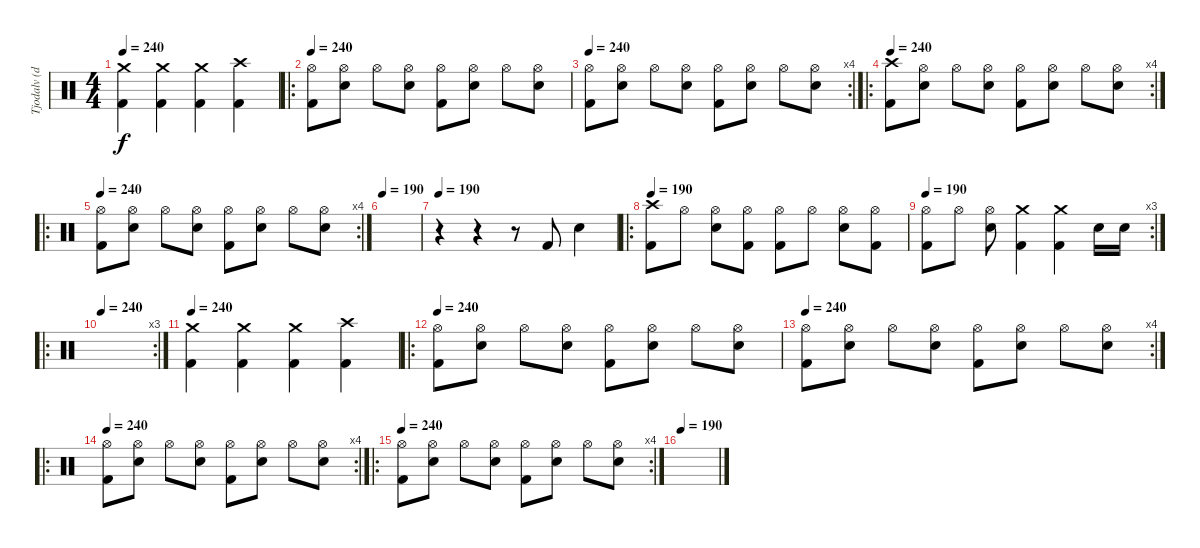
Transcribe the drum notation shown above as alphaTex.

\track ("Tjodalv (drums)" "Tjodalv (d") {instrument percussion}
\staff {score}
\articulation defaults
\ts (4 4)
\tempo 240
\clef neutral
\ks c
("Crash medium (hit)" "Kick (hit) 2").4{dy f} ("Crash medium (hit)" "Kick (hit) 2").4 ("Crash medium (hit)" "Kick (hit) 2").4 ("Crash high (hit)" "Kick (hit) 2").4 |
\ro
\tempo 240
("Hi-Hat (open)" "Kick (hit) 2").8 ("Hi-Hat (open)" "Snare (hit) 2").8 "Hi-Hat (open)".8 ("Hi-Hat (open)" "Snare (hit) 2").8 ("Hi-Hat (open)" "Kick (hit) 2").8 ("Hi-Hat (open)" "Snare (hit) 2").8 "Hi-Hat (open)".8 ("Hi-Hat (open)" "Snare (hit) 2").8 |
\rc 4
\tempo 240
("Hi-Hat (open)" "Kick (hit) 2").8 ("Hi-Hat (open)" "Snare (hit) 2").8 "Hi-Hat (open)".8 ("Hi-Hat (open)" "Snare (hit) 2").8 ("Hi-Hat (open)" "Kick (hit) 2").8 ("Hi-Hat (open)" "Snare (hit) 2").8 "Hi-Hat (open)".8 ("Hi-Hat (open)" "Snare (hit) 2").8 |
\ro
\rc 4
\tempo 240
("Crash high (hit)" "Kick (hit) 2").8 ("Hi-Hat (open)" "Snare (hit) 2").8 "Hi-Hat (open)".8 ("Hi-Hat (open)" "Snare (hit) 2").8 ("Hi-Hat (open)" "Kick (hit) 2").8 ("Hi-Hat (open)" "Snare (hit) 2").8 "Hi-Hat (open)".8 ("Hi-Hat (open)" "Snare (hit) 2").8 |
\ro
\rc 4
\tempo 240
("Hi-Hat (open)" "Kick (hit) 2").8 ("Hi-Hat (open)" "Snare (hit) 2").8 "Hi-Hat (open)".8 ("Hi-Hat (open)" "Snare (hit) 2").8 ("Hi-Hat (open)" "Kick (hit) 2").8 ("Hi-Hat (open)" "Snare (hit) 2").8 "Hi-Hat (open)".8 ("Hi-Hat (open)" "Snare (hit) 2").8 |
\tempo 190
|
\tempo 190
r.4 r.4 r.8 "Kick (hit) 2".8 "Snare (hit) 2".4 |
\ro
\tempo 190
("Crash high (hit)" "Kick (hit) 2").8 "Hi-Hat (open)".8 ("Hi-Hat (open)" "Snare (hit) 2").8 ("Hi-Hat (open)" "Kick (hit) 2").8 ("Hi-Hat (open)" "Kick (hit) 2").8 "Hi-Hat (open)".8 ("Hi-Hat (open)" "Snare (hit) 2").8 ("Hi-Hat (open)" "Kick (hit) 2").8 |
\rc 3
\tempo 190
("Hi-Hat (open)" "Kick (hit) 2").8 "Hi-Hat (open)".8 ("Hi-Hat (open)" "Snare (hit) 2").8 ("Crash medium (hit)" "Kick (hit) 2").4 ("Crash medium (hit)" "Kick (hit) 2").4 "Snare (hit) 2".16 "Snare (hit) 2".16 |
\ro
\rc 3
\tempo 240
|
\tempo 240
("Crash medium (hit)" "Kick (hit) 2").4 ("Crash medium (hit)" "Kick (hit) 2").4 ("Crash medium (hit)" "Kick (hit) 2").4 ("Crash high (hit)" "Kick (hit) 2").4 |
\ro
\tempo 240
("Hi-Hat (open)" "Kick (hit) 2").8 ("Hi-Hat (open)" "Snare (hit) 2").8 "Hi-Hat (open)".8 ("Hi-Hat (open)" "Snare (hit) 2").8 ("Hi-Hat (open)" "Kick (hit) 2").8 ("Hi-Hat (open)" "Snare (hit) 2").8 "Hi-Hat (open)".8 ("Hi-Hat (open)" "Snare (hit) 2").8 |
\rc 4
\tempo 240
("Hi-Hat (open)" "Kick (hit) 2").8 ("Hi-Hat (open)" "Snare (hit) 2").8 "Hi-Hat (open)".8 ("Hi-Hat (open)" "Snare (hit) 2").8 ("Hi-Hat (open)" "Kick (hit) 2").8 ("Hi-Hat (open)" "Snare (hit) 2").8 "Hi-Hat (open)".8 ("Hi-Hat (open)" "Snare (hit) 2").8 |
\ro
\rc 4
\tempo 240
("Hi-Hat (open)" "Kick (hit) 2").8 ("Hi-Hat (open)" "Snare (hit) 2").8 "Hi-Hat (open)".8 ("Hi-Hat (open)" "Snare (hit) 2").8 ("Hi-Hat (open)" "Kick (hit) 2").8 ("Hi-Hat (open)" "Snare (hit) 2").8 "Hi-Hat (open)".8 ("Hi-Hat (open)" "Snare (hit) 2").8 |
\ro
\rc 4
\tempo 240
("Hi-Hat (open)" "Kick (hit) 2").8 ("Hi-Hat (open)" "Snare (hit) 2").8 "Hi-Hat (open)".8 ("Hi-Hat (open)" "Snare (hit) 2").8 ("Hi-Hat (open)" "Kick (hit) 2").8 ("Hi-Hat (open)" "Snare (hit) 2").8 "Hi-Hat (open)".8 ("Hi-Hat (open)" "Snare (hit) 2").8 |
\tempo 190
